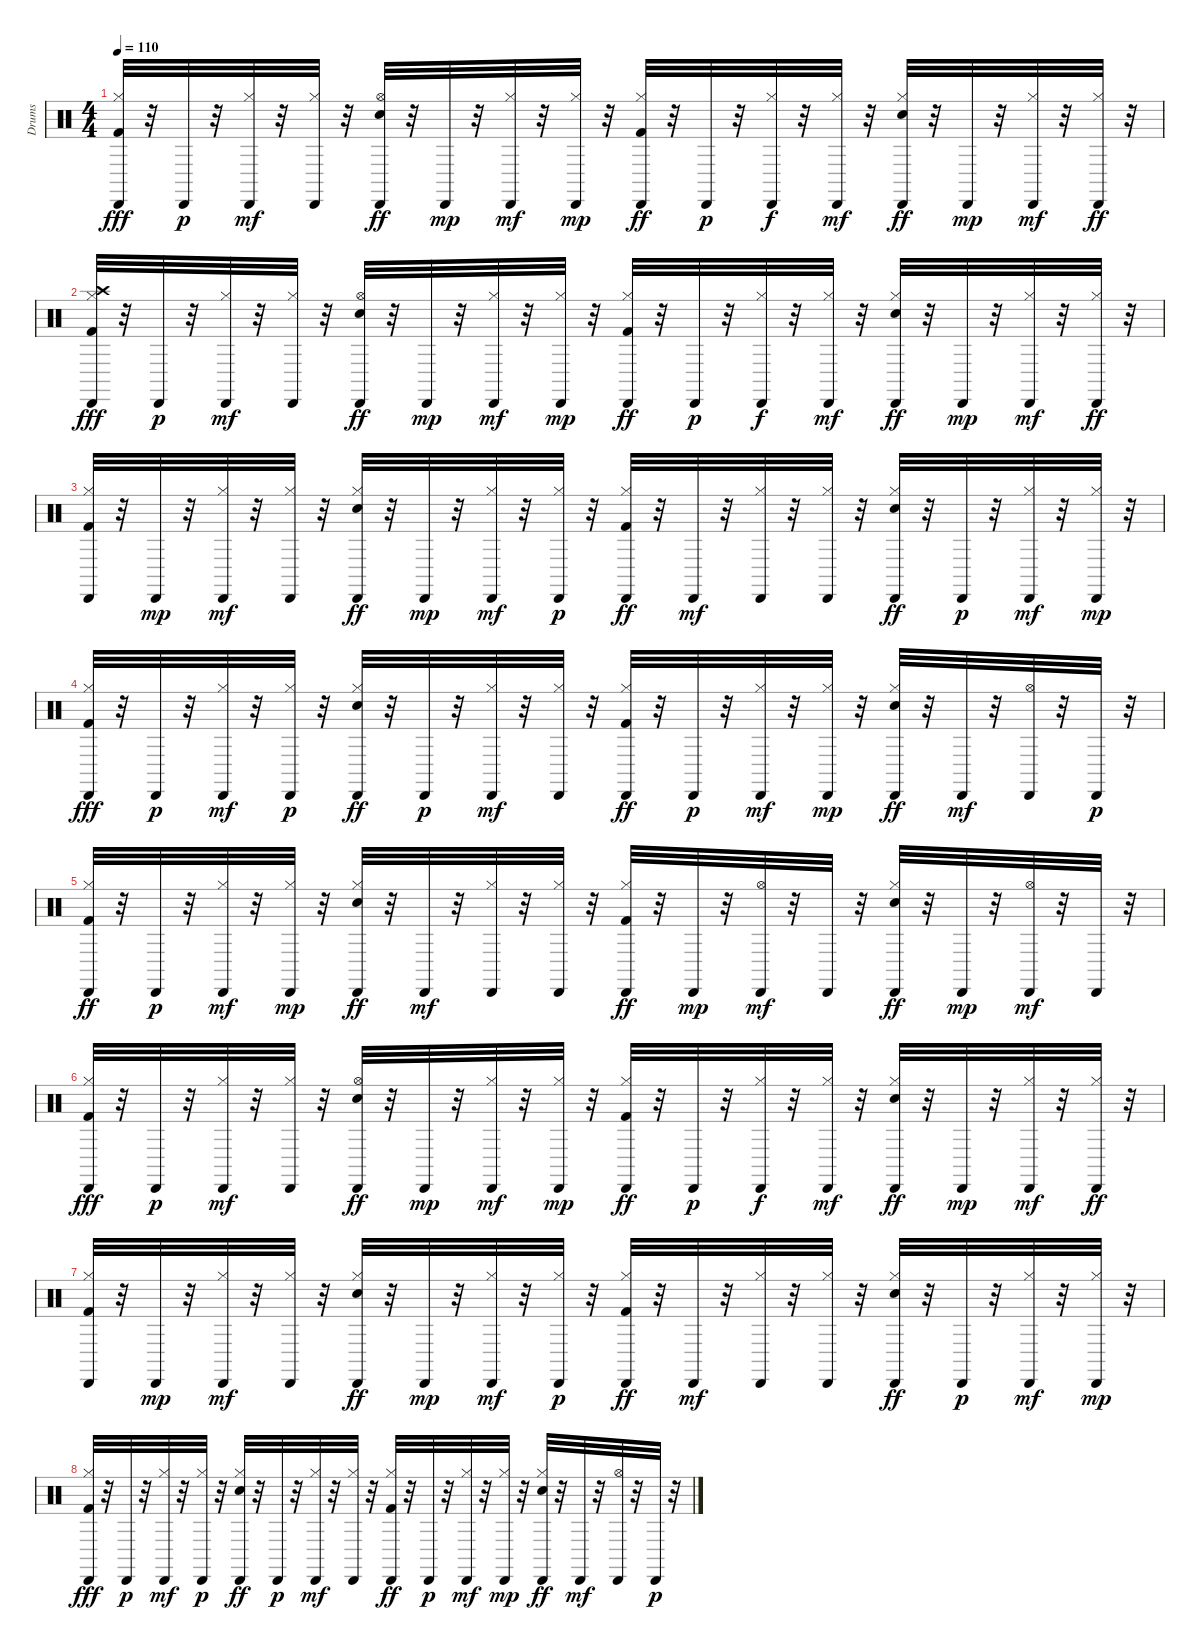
\track ("Drums" "Drums") {instrument percussion}
\staff {score}
\articulation defaults
\ts (4 4)
\tempo 110
\clef neutral
\ks c
("Cabasa (hit)" "Hi-Hat (closed)" "Kick (hit) 2").32{dy fff} r.32 "Cabasa (hit)".32{dy p} r.32 ("Cabasa (hit)" "Hi-Hat (closed)").32{dy mf} r.32 ("Cabasa (hit)" "Hi-Hat (closed)").32 r.32 ("Hi-Hat (open)" "Cabasa (hit)" "Snare (hit) 2").32{dy ff} r.32 "Cabasa (hit)".32{dy mp} r.32 ("Cabasa (hit)" "Hi-Hat (closed)").32{dy mf} r.32 ("Cabasa (hit)" "Hi-Hat (closed)").32{dy mp} r.32 ("Cabasa (hit)" "Hi-Hat (closed)" "Kick (hit) 2").32{dy ff} r.32 "Cabasa (hit)".32{dy p} r.32 ("Cabasa (hit)" "Hi-Hat (closed)").32{dy f} r.32 ("Cabasa (hit)" "Hi-Hat (closed)").32{dy mf} r.32 ("Cabasa (hit)" "Hi-Hat (closed)" "Snare (hit) 2").32{dy ff} r.32 "Cabasa (hit)".32{dy mp} r.32 ("Cabasa (hit)" "Hi-Hat (closed)").32{dy mf} r.32 ("Cabasa (hit)" "Hi-Hat (closed)").32{dy ff} r.32 |
("Cabasa (hit)" "Crash high (hit)" "Hi-Hat (closed)" "Kick (hit) 2").32{dy fff} r.32 "Cabasa (hit)".32{dy p} r.32 ("Cabasa (hit)" "Hi-Hat (closed)").32{dy mf} r.32 ("Cabasa (hit)" "Hi-Hat (closed)").32 r.32 ("Hi-Hat (open)" "Cabasa (hit)" "Snare (hit) 2").32{dy ff} r.32 "Cabasa (hit)".32{dy mp} r.32 ("Cabasa (hit)" "Hi-Hat (closed)").32{dy mf} r.32 ("Cabasa (hit)" "Hi-Hat (closed)").32{dy mp} r.32 ("Cabasa (hit)" "Hi-Hat (closed)" "Kick (hit) 2").32{dy ff} r.32 "Cabasa (hit)".32{dy p} r.32 ("Cabasa (hit)" "Hi-Hat (closed)").32{dy f} r.32 ("Cabasa (hit)" "Hi-Hat (closed)").32{dy mf} r.32 ("Cabasa (hit)" "Hi-Hat (closed)" "Snare (hit) 2").32{dy ff} r.32 "Cabasa (hit)".32{dy mp} r.32 ("Cabasa (hit)" "Hi-Hat (closed)").32{dy mf} r.32 ("Cabasa (hit)" "Hi-Hat (closed)").32{dy ff} r.32 |
("Cabasa (hit)" "Hi-Hat (closed)" "Kick (hit) 2").32 r.32 "Cabasa (hit)".32{dy mp} r.32 ("Cabasa (hit)" "Hi-Hat (closed)").32{dy mf} r.32 ("Cabasa (hit)" "Hi-Hat (closed)").32 r.32 ("Cabasa (hit)" "Hi-Hat (closed)" "Snare (hit) 2").32{dy ff} r.32 "Cabasa (hit)".32{dy mp} r.32 ("Cabasa (hit)" "Hi-Hat (closed)").32{dy mf} r.32 ("Cabasa (hit)" "Hi-Hat (closed)").32{dy p} r.32 ("Cabasa (hit)" "Hi-Hat (closed)" "Kick (hit) 2").32{dy ff} r.32 "Cabasa (hit)".32{dy mf} r.32 ("Cabasa (hit)" "Hi-Hat (closed)").32 r.32 ("Cabasa (hit)" "Hi-Hat (closed)").32 r.32 ("Cabasa (hit)" "Hi-Hat (closed)" "Snare (hit) 2").32{dy ff} r.32 "Cabasa (hit)".32{dy p} r.32 ("Cabasa (hit)" "Hi-Hat (closed)").32{dy mf} r.32 ("Cabasa (hit)" "Hi-Hat (closed)").32{dy mp} r.32 |
("Cabasa (hit)" "Hi-Hat (closed)" "Kick (hit) 2").32{dy fff} r.32 "Cabasa (hit)".32{dy p} r.32 ("Cabasa (hit)" "Hi-Hat (closed)").32{dy mf} r.32 ("Cabasa (hit)" "Hi-Hat (closed)").32{dy p} r.32 ("Cabasa (hit)" "Hi-Hat (closed)" "Snare (hit) 2").32{dy ff} r.32 "Cabasa (hit)".32{dy p} r.32 ("Cabasa (hit)" "Hi-Hat (closed)").32{dy mf} r.32 ("Cabasa (hit)" "Hi-Hat (closed)").32 r.32 ("Cabasa (hit)" "Hi-Hat (closed)" "Kick (hit) 2").32{dy ff} r.32 "Cabasa (hit)".32{dy p} r.32 ("Cabasa (hit)" "Hi-Hat (closed)").32{dy mf} r.32 ("Cabasa (hit)" "Hi-Hat (closed)").32{dy mp} r.32 ("Cabasa (hit)" "Hi-Hat (closed)" "Snare (hit) 2").32{dy ff} r.32 "Cabasa (hit)".32{dy mf} r.32 ("Hi-Hat (open)" "Cabasa (hit)").32 r.32 "Cabasa (hit)".32{dy p} r.32 |
("Cabasa (hit)" "Hi-Hat (closed)" "Kick (hit) 2").32{dy ff} r.32 "Cabasa (hit)".32{dy p} r.32 ("Cabasa (hit)" "Hi-Hat (closed)").32{dy mf} r.32 ("Cabasa (hit)" "Hi-Hat (closed)").32{dy mp} r.32 ("Cabasa (hit)" "Hi-Hat (closed)" "Snare (hit) 2").32{dy ff} r.32 "Cabasa (hit)".32{dy mf} r.32 ("Cabasa (hit)" "Hi-Hat (closed)").32 r.32 ("Cabasa (hit)" "Hi-Hat (closed)").32 r.32 ("Cabasa (hit)" "Hi-Hat (closed)" "Kick (hit) 2").32{dy ff} r.32 "Cabasa (hit)".32{dy mp} r.32 ("Hi-Hat (open)" "Cabasa (hit)").32{dy mf} r.32 "Cabasa (hit)".32 r.32 ("Cabasa (hit)" "Hi-Hat (closed)" "Snare (hit) 2").32{dy ff} r.32 "Cabasa (hit)".32{dy mp} r.32 ("Hi-Hat (open)" "Cabasa (hit)").32{dy mf} r.32 "Cabasa (hit)".32 r.32 |
("Cabasa (hit)" "Hi-Hat (closed)" "Kick (hit) 2").32{dy fff} r.32 "Cabasa (hit)".32{dy p} r.32 ("Cabasa (hit)" "Hi-Hat (closed)").32{dy mf} r.32 ("Cabasa (hit)" "Hi-Hat (closed)").32 r.32 ("Hi-Hat (open)" "Cabasa (hit)" "Snare (hit) 2").32{dy ff} r.32 "Cabasa (hit)".32{dy mp} r.32 ("Cabasa (hit)" "Hi-Hat (closed)").32{dy mf} r.32 ("Cabasa (hit)" "Hi-Hat (closed)").32{dy mp} r.32 ("Cabasa (hit)" "Hi-Hat (closed)" "Kick (hit) 2").32{dy ff} r.32 "Cabasa (hit)".32{dy p} r.32 ("Cabasa (hit)" "Hi-Hat (closed)").32{dy f} r.32 ("Cabasa (hit)" "Hi-Hat (closed)").32{dy mf} r.32 ("Cabasa (hit)" "Hi-Hat (closed)" "Snare (hit) 2").32{dy ff} r.32 "Cabasa (hit)".32{dy mp} r.32 ("Cabasa (hit)" "Hi-Hat (closed)").32{dy mf} r.32 ("Cabasa (hit)" "Hi-Hat (closed)").32{dy ff} r.32 |
("Cabasa (hit)" "Hi-Hat (closed)" "Kick (hit) 2").32 r.32 "Cabasa (hit)".32{dy mp} r.32 ("Cabasa (hit)" "Hi-Hat (closed)").32{dy mf} r.32 ("Cabasa (hit)" "Hi-Hat (closed)").32 r.32 ("Cabasa (hit)" "Hi-Hat (closed)" "Snare (hit) 2").32{dy ff} r.32 "Cabasa (hit)".32{dy mp} r.32 ("Cabasa (hit)" "Hi-Hat (closed)").32{dy mf} r.32 ("Cabasa (hit)" "Hi-Hat (closed)").32{dy p} r.32 ("Cabasa (hit)" "Hi-Hat (closed)" "Kick (hit) 2").32{dy ff} r.32 "Cabasa (hit)".32{dy mf} r.32 ("Cabasa (hit)" "Hi-Hat (closed)").32 r.32 ("Cabasa (hit)" "Hi-Hat (closed)").32 r.32 ("Cabasa (hit)" "Hi-Hat (closed)" "Snare (hit) 2").32{dy ff} r.32 "Cabasa (hit)".32{dy p} r.32 ("Cabasa (hit)" "Hi-Hat (closed)").32{dy mf} r.32 ("Cabasa (hit)" "Hi-Hat (closed)").32{dy mp} r.32 |
("Cabasa (hit)" "Hi-Hat (closed)" "Kick (hit) 2").32{dy fff} r.32 "Cabasa (hit)".32{dy p} r.32 ("Cabasa (hit)" "Hi-Hat (closed)").32{dy mf} r.32 ("Cabasa (hit)" "Hi-Hat (closed)").32{dy p} r.32 ("Cabasa (hit)" "Hi-Hat (closed)" "Snare (hit) 2").32{dy ff} r.32 "Cabasa (hit)".32{dy p} r.32 ("Cabasa (hit)" "Hi-Hat (closed)").32{dy mf} r.32 ("Cabasa (hit)" "Hi-Hat (closed)").32 r.32 ("Cabasa (hit)" "Hi-Hat (closed)" "Kick (hit) 2").32{dy ff} r.32 "Cabasa (hit)".32{dy p} r.32 ("Cabasa (hit)" "Hi-Hat (closed)").32{dy mf} r.32 ("Cabasa (hit)" "Hi-Hat (closed)").32{dy mp} r.32 ("Cabasa (hit)" "Hi-Hat (closed)" "Snare (hit) 2").32{dy ff} r.32 "Cabasa (hit)".32{dy mf} r.32 ("Hi-Hat (open)" "Cabasa (hit)").32 r.32 "Cabasa (hit)".32{dy p} r.32
